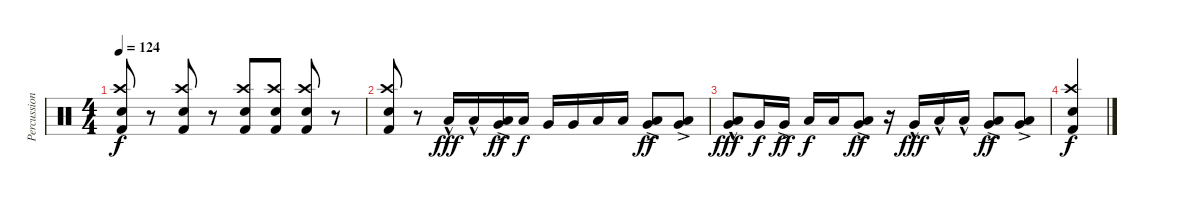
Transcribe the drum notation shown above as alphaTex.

\track ("Percussion" "Percussion") {instrument percussion}
\staff {score}
\articulation defaults
\ts (4 4)
\tempo 124
\clef neutral
\ks c
("Kick (hit) 2" "Crash high (hit)" "Electric Snare (hit)").8{dy f} r.8 ("Kick (hit) 2" "Crash high (hit)" "Electric Snare (hit)").8 r.8 ("Kick (hit) 2" "Crash high (hit)" "Electric Snare (hit)").8 ("Kick (hit) 2" "Crash high (hit)" "Electric Snare (hit)").8 ("Kick (hit) 2" "Crash high (hit)" "Electric Snare (hit)").8 r.8 |
("Electric Snare (hit)" "Kick (hit) 2" "Crash high (hit)").8 r.8 "Low Floor Tom (hit)"{hac}.16{dy fff} "Low Floor Tom (hit)"{hac}.16 ("Low Floor Tom (hit)"{ac} "Very Low Tom (hit)"{ac}).16{dy ff} "Low Tom (hit)".16{dy f} "Very Low Tom (hit)".16 "Very Low Tom (hit)".16 "Low Floor Tom (hit)".16 "Low Floor Tom (hit)".16 ("Low Floor Tom (hit)" "Very Low Tom (hit)"{ac}).8{dy ff} ("Low Floor Tom (hit)"{ac} "Very Low Tom (hit)").8 |
("Low Floor Tom (hit)" "Very Low Tom (hit)"{hac}).8{dy fff} "Very Low Tom (hit)".16{dy f} "Very Low Tom (hit)"{ac}.16{dy ff} "Low Floor Tom (hit)".16{dy f} "Low Floor Tom (hit)".16 ("Very Low Tom (hit)" "Low Floor Tom (hit)"{ac}).8{dy ff} r.16 "Very Low Tom (hit)"{hac}.16{dy fff} "Low Floor Tom (hit)"{hac}.16 "Low Floor Tom (hit)"{hac}.16 ("Very Low Tom (hit)"{ac} "Low Floor Tom (hit)").8{dy ff} ("Very Low Tom (hit)"{ac} "Low Floor Tom (hit)").8 |
("Crash high (hit)" "Electric Snare (hit)" "Kick (hit) 2").4{dy f}
